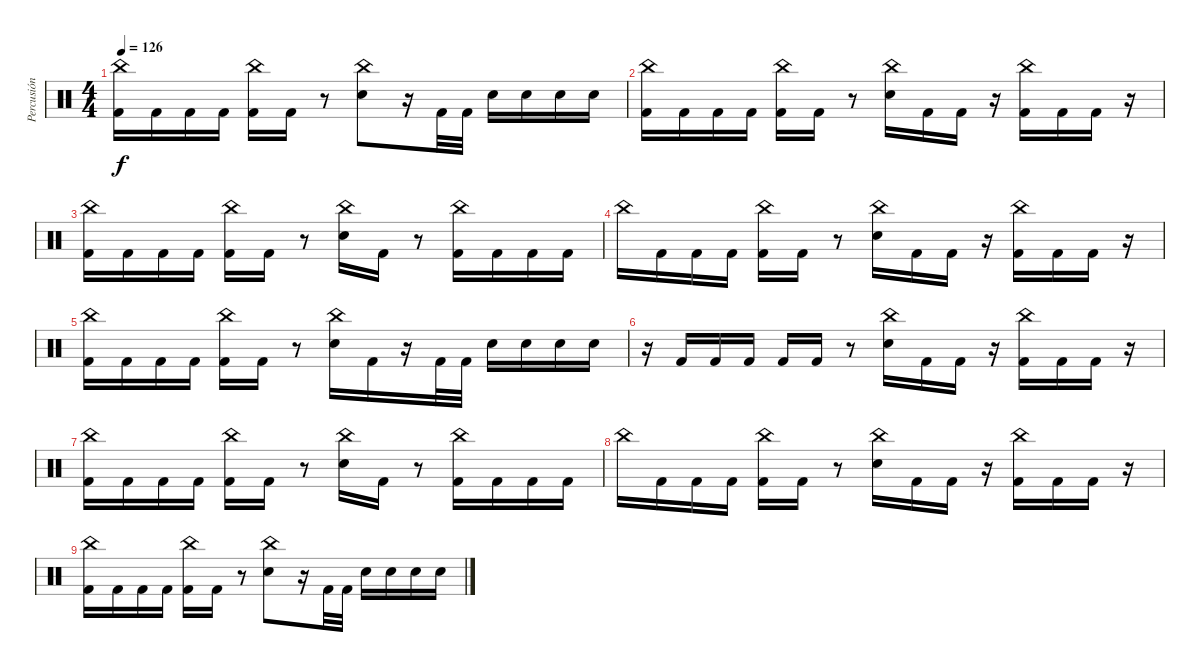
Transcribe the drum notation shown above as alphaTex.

\track ("Percusión" "Percusión") {instrument percussion}
\staff {score}
\articulation defaults
\ts (4 4)
\tempo 126
\clef neutral
\ks c
("China (hit)" "Kick (hit) 2").16{dy f} "Kick (hit) 2".16 "Kick (hit) 2".16 "Kick (hit) 2".16 ("China (hit)" "Kick (hit) 2").16 "Kick (hit) 2".16 r.8 ("China (hit)" "Electric Snare (hit)").8 r.16 "Kick (hit) 2".32 "Kick (hit) 2".32 "Electric Snare (hit)".16 "Electric Snare (hit)".16 "Electric Snare (hit)".16 "Electric Snare (hit)".16 |
("China (hit)" "Kick (hit) 2").16 "Kick (hit) 2".16 "Kick (hit) 2".16 "Kick (hit) 2".16 ("China (hit)" "Kick (hit) 2").16 "Kick (hit) 2".16 r.8 ("China (hit)" "Electric Snare (hit)").16 "Kick (hit) 2".16 "Kick (hit) 2".16 r.16 ("China (hit)" "Kick (hit) 2").16 "Kick (hit) 2".16 "Kick (hit) 2".16 r.16 |
("China (hit)" "Kick (hit) 2").16 "Kick (hit) 2".16 "Kick (hit) 2".16 "Kick (hit) 2".16 ("China (hit)" "Kick (hit) 2").16 "Kick (hit) 2".16 r.8 ("China (hit)" "Electric Snare (hit)").16 "Kick (hit) 2".16 r.8 ("China (hit)" "Kick (hit) 2").16 "Kick (hit) 2".16 "Kick (hit) 2".16 "Kick (hit) 2".16 |
"China (hit)".16 "Kick (hit) 2".16 "Kick (hit) 2".16 "Kick (hit) 2".16 ("China (hit)" "Kick (hit) 2").16 "Kick (hit) 2".16 r.8 ("China (hit)" "Electric Snare (hit)").16 "Kick (hit) 2".16 "Kick (hit) 2".16 r.16 ("China (hit)" "Kick (hit) 2").16 "Kick (hit) 2".16 "Kick (hit) 2".16 r.16 |
("China (hit)" "Kick (hit) 2").16 "Kick (hit) 2".16 "Kick (hit) 2".16 "Kick (hit) 2".16 ("China (hit)" "Kick (hit) 2").16 "Kick (hit) 2".16 r.8 ("China (hit)" "Electric Snare (hit)").16 "Kick (hit) 2".16 r.16 "Kick (hit) 2".32 "Kick (hit) 2".32 "Electric Snare (hit)".16 "Electric Snare (hit)".16 "Electric Snare (hit)".16 "Electric Snare (hit)".16 |
r.16 "Kick (hit) 2".16 "Kick (hit) 2".16 "Kick (hit) 2".16 "Kick (hit) 2".16 "Kick (hit) 2".16 r.8 ("China (hit)" "Electric Snare (hit)").16 "Kick (hit) 2".16 "Kick (hit) 2".16 r.16 ("China (hit)" "Kick (hit) 2").16 "Kick (hit) 2".16 "Kick (hit) 2".16 r.16 |
("China (hit)" "Kick (hit) 2").16 "Kick (hit) 2".16 "Kick (hit) 2".16 "Kick (hit) 2".16 ("China (hit)" "Kick (hit) 2").16 "Kick (hit) 2".16 r.8 ("China (hit)" "Electric Snare (hit)").16 "Kick (hit) 2".16 r.8 ("China (hit)" "Kick (hit) 2").16 "Kick (hit) 2".16 "Kick (hit) 2".16 "Kick (hit) 2".16 |
"China (hit)".16 "Kick (hit) 2".16 "Kick (hit) 2".16 "Kick (hit) 2".16 ("China (hit)" "Kick (hit) 2").16 "Kick (hit) 2".16 r.8 ("China (hit)" "Electric Snare (hit)").16 "Kick (hit) 2".16 "Kick (hit) 2".16 r.16 ("China (hit)" "Kick (hit) 2").16 "Kick (hit) 2".16 "Kick (hit) 2".16 r.16 |
("China (hit)" "Kick (hit) 2").16 "Kick (hit) 2".16 "Kick (hit) 2".16 "Kick (hit) 2".16 ("China (hit)" "Kick (hit) 2").16 "Kick (hit) 2".16 r.8 ("China (hit)" "Electric Snare (hit)").8 r.16 "Kick (hit) 2".32 "Kick (hit) 2".32 "Electric Snare (hit)".16 "Electric Snare (hit)".16 "Electric Snare (hit)".16 "Electric Snare (hit)".16
